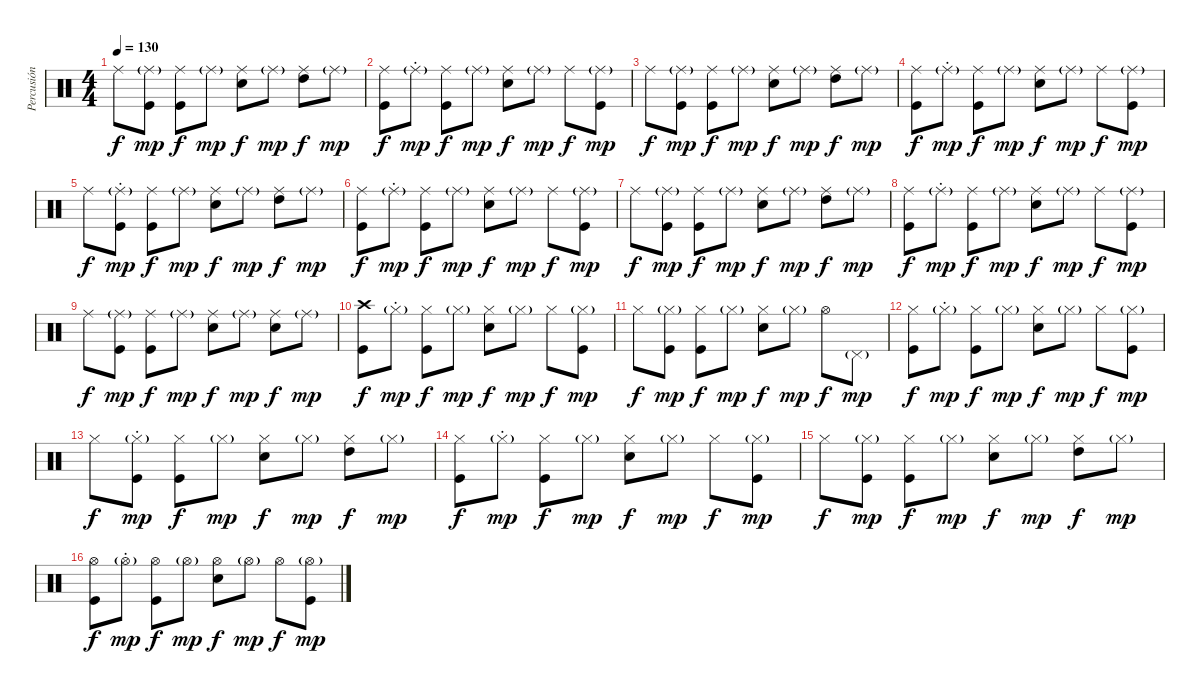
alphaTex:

\track ("Percusión" "Percusión") {instrument percussion}
\staff {score}
\articulation defaults
\ts (4 4)
\tempo 130
\clef neutral
\ks c "Ride (middle)".8{dy f}
("Ride (middle)"{g} "Kick (hit)").8{dy mp} ("Ride (middle)" "Kick (hit)").8{dy f} "Ride (middle)"{g}.8{dy mp} ("Ride (middle)" "Electric Snare (hit)").8{dy f} "Ride (middle)"{g}.8{dy mp} ("High Tom (hit)" "Ride (middle)").8{dy f} "Ride (middle)"{g}.8{dy mp} |
("Ride (middle)" "Kick (hit)").8{dy f} "Ride (middle)"{g st}.8{dy mp} ("Ride (middle)" "Kick (hit)").8{dy f} "Ride (middle)"{g}.8{dy mp} ("Ride (middle)" "Electric Snare (hit)").8{dy f} "Ride (middle)"{g}.8{dy mp} "Ride (middle)".8{dy f} ("Ride (middle)"{g} "Kick (hit)").8{dy mp} |
"Ride (middle)".8{dy f} ("Ride (middle)"{g} "Kick (hit)").8{dy mp} ("Ride (middle)" "Kick (hit)").8{dy f} "Ride (middle)"{g}.8{dy mp} ("Ride (middle)" "Electric Snare (hit)").8{dy f} "Ride (middle)"{g}.8{dy mp} ("High Tom (hit)" "Ride (middle)").8{dy f} "Ride (middle)"{g}.8{dy mp} |
("Ride (middle)" "Kick (hit)").8{dy f} "Ride (middle)"{g st}.8{dy mp} ("Ride (middle)" "Kick (hit)").8{dy f} "Ride (middle)"{g}.8{dy mp} ("Ride (middle)" "Electric Snare (hit)").8{dy f} "Ride (middle)"{g}.8{dy mp} "Ride (middle)".8{dy f} ("Ride (middle)"{g} "Kick (hit)").8{dy mp} |
"Ride (middle)".8{dy f} ("Ride (middle)"{g st} "Kick (hit)").8{dy mp} ("Ride (middle)" "Kick (hit)").8{dy f} "Ride (middle)"{g}.8{dy mp} ("Ride (middle)" "Electric Snare (hit)").8{dy f} "Ride (middle)"{g}.8{dy mp} ("High Tom (hit)" "Ride (middle)").8{dy f} "Ride (middle)"{g}.8{dy mp} |
("Ride (middle)" "Kick (hit)").8{dy f} "Ride (middle)"{g st}.8{dy mp} ("Ride (middle)" "Kick (hit)").8{dy f} "Ride (middle)"{g}.8{dy mp} ("Ride (middle)" "Electric Snare (hit)").8{dy f} "Ride (middle)"{g}.8{dy mp} "Ride (middle)".8{dy f} ("Ride (middle)"{g} "Kick (hit)").8{dy mp} |
"Ride (middle)".8{dy f} ("Ride (middle)"{g} "Kick (hit)").8{dy mp} ("Ride (middle)" "Kick (hit)").8{dy f} "Ride (middle)"{g}.8{dy mp} ("Ride (middle)" "Electric Snare (hit)").8{dy f} "Ride (middle)"{g}.8{dy mp} ("High Tom (hit)" "Ride (middle)").8{dy f} "Ride (middle)"{g}.8{dy mp} |
("Ride (middle)" "Kick (hit)").8{dy f} "Ride (middle)"{g st}.8{dy mp} ("Ride (middle)" "Kick (hit)").8{dy f} "Ride (middle)"{g}.8{dy mp} ("Ride (middle)" "Electric Snare (hit)").8{dy f} "Ride (middle)"{g}.8{dy mp} "Ride (middle)".8{dy f} ("Ride (middle)"{g} "Kick (hit)").8{dy mp} |
"Ride (middle)".8{dy f} ("Ride (middle)"{g} "Kick (hit)").8{dy mp} ("Ride (middle)" "Kick (hit)").8{dy f} "Ride (middle)"{g}.8{dy mp} ("Ride (middle)" "Electric Snare (hit)").8{dy f} "Ride (middle)"{g}.8{dy mp} ("Ride (middle)" "Electric Snare (hit)").8{dy f} "Ride (middle)"{g}.8{dy mp} |
("Crash high (hit)" "Kick (hit)").8{dy f} "Hi-Hat (closed)"{g st}.8{dy mp} ("Hi-Hat (closed)" "Kick (hit)").8{dy f} "Hi-Hat (closed)"{g}.8{dy mp} ("Hi-Hat (closed)" "Electric Snare (hit)").8{dy f} "Hi-Hat (closed)"{g}.8{dy mp} "Hi-Hat (closed)".8{dy f} ("Hi-Hat (closed)"{g} "Kick (hit)").8{dy mp} |
"Hi-Hat (closed)".8{dy f} ("Hi-Hat (closed)"{g} "Kick (hit)").8{dy mp} ("Hi-Hat (closed)" "Kick (hit)").8{dy f} "Hi-Hat (closed)"{g}.8{dy mp} ("Hi-Hat (closed)" "Electric Snare (hit)").8{dy f} "Hi-Hat (closed)"{g}.8{dy mp} "Hi-Hat (open)".8{dy f} "Pedal Hi-Hat (hit)"{g}.8{dy mp} |
("Hi-Hat (closed)" "Kick (hit)").8{dy f} "Hi-Hat (closed)"{g st}.8{dy mp} ("Hi-Hat (closed)" "Kick (hit)").8{dy f} "Hi-Hat (closed)"{g}.8{dy mp} ("Hi-Hat (closed)" "Electric Snare (hit)").8{dy f} "Hi-Hat (closed)"{g}.8{dy mp} "Hi-Hat (closed)".8{dy f} ("Hi-Hat (closed)"{g} "Kick (hit)").8{dy mp} |
"Hi-Hat (closed)".8{dy f} ("Hi-Hat (closed)"{g st} "Kick (hit)").8{dy mp} ("Hi-Hat (closed)" "Kick (hit)").8{dy f} "Hi-Hat (closed)"{g}.8{dy mp} ("Hi-Hat (closed)" "Electric Snare (hit)").8{dy f} "Hi-Hat (closed)"{g}.8{dy mp} ("High Tom (hit)" "Hi-Hat (closed)").8{dy f} "Hi-Hat (closed)"{g}.8{dy mp} |
("Hi-Hat (closed)" "Kick (hit)").8{dy f} "Hi-Hat (closed)"{g st}.8{dy mp} ("Hi-Hat (closed)" "Kick (hit)").8{dy f} "Hi-Hat (closed)"{g}.8{dy mp} ("Hi-Hat (closed)" "Electric Snare (hit)").8{dy f} "Hi-Hat (closed)"{g}.8{dy mp} "Hi-Hat (closed)".8{dy f} ("Hi-Hat (closed)"{g} "Kick (hit)").8{dy mp} |
"Hi-Hat (closed)".8{dy f} ("Hi-Hat (closed)"{g} "Kick (hit)").8{dy mp} ("Hi-Hat (closed)" "Kick (hit)").8{dy f} "Hi-Hat (closed)"{g}.8{dy mp} ("Hi-Hat (closed)" "Electric Snare (hit)").8{dy f} "Hi-Hat (closed)"{g}.8{dy mp} ("High Tom (hit)" "Hi-Hat (closed)").8{dy f} "Hi-Hat (closed)"{g}.8{dy mp} |
("Hi-Hat (open)" "Kick (hit)").8{dy f} "Hi-Hat (open)"{g st}.8{dy mp} ("Hi-Hat (open)" "Kick (hit)").8{dy f} "Hi-Hat (open)"{g}.8{dy mp} ("Hi-Hat (open)" "Electric Snare (hit)").8{dy f} "Hi-Hat (open)"{g}.8{dy mp} "Hi-Hat (open)".8{dy f} ("Hi-Hat (open)"{g} "Kick (hit)").8{dy mp}
